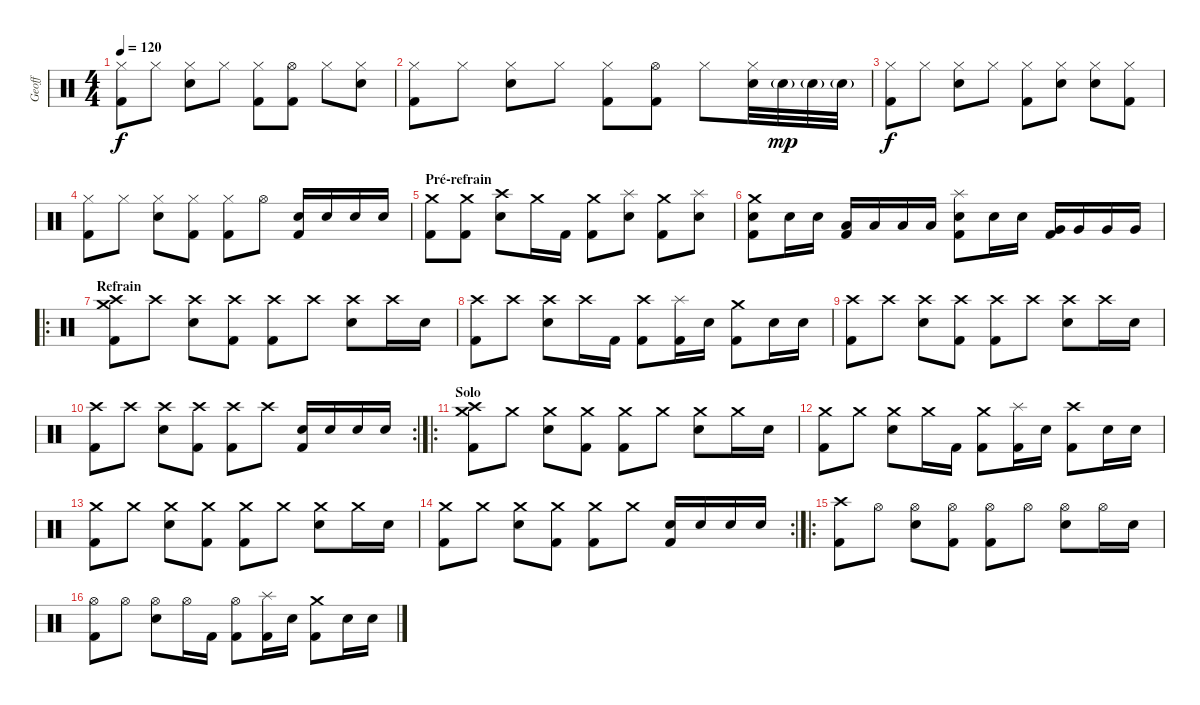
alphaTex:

\track ("Geoff" "Geoff") {instrument percussion}
\staff {score}
\articulation defaults
\ts (4 4)
\tempo 120
\clef neutral
\ks c
("Hi-Hat (closed)" "Kick (hit) 2").8{dy f} "Hi-Hat (closed)".8 ("Hi-Hat (closed)" "Electric Snare (hit)").8 "Hi-Hat (closed)".8 ("Hi-Hat (closed)" "Kick (hit) 2").8 ("Hi-Hat (open)" "Kick (hit) 2").8 "Hi-Hat (closed)".8 ("Hi-Hat (closed)" "Electric Snare (hit)").8 |
("Hi-Hat (closed)" "Kick (hit) 2").8 "Hi-Hat (closed)".8 ("Hi-Hat (closed)" "Electric Snare (hit)").8 "Hi-Hat (closed)".8 ("Hi-Hat (closed)" "Kick (hit) 2").8 ("Hi-Hat (open)" "Kick (hit) 2").8 "Hi-Hat (closed)".8 ("Hi-Hat (closed)" "Electric Snare (hit)").32 "Electric Snare (hit)"{g}.32{dy mp} "Electric Snare (hit)"{g}.32 "Electric Snare (hit)"{g}.32 |
("Hi-Hat (closed)" "Kick (hit) 2").8{dy f} "Hi-Hat (closed)".8 ("Hi-Hat (closed)" "Electric Snare (hit)").8 "Hi-Hat (closed)".8 ("Hi-Hat (closed)" "Kick (hit) 2").8 ("Hi-Hat (closed)" "Electric Snare (hit)").8 ("Hi-Hat (closed)" "Electric Snare (hit)").8 ("Hi-Hat (closed)" "Kick (hit) 2").8 |
("Hi-Hat (closed)" "Kick (hit) 2").8 "Hi-Hat (closed)".8 ("Hi-Hat (closed)" "Electric Snare (hit)").8 ("Hi-Hat (closed)" "Kick (hit) 2").8 ("Hi-Hat (closed)" "Kick (hit) 2").8 "Hi-Hat (open)".8 ("Electric Snare (hit)" "Kick (hit) 2").16 "Electric Snare (hit)".16 "Electric Snare (hit)".16 "Electric Snare (hit)".16 |
\section ("" "Pré-refrain")
("Crash medium (hit)" "Kick (hit) 2").8 ("Crash medium (hit)" "Kick (hit) 2").8 ("Crash high (hit)" "Electric Snare (hit)").8 "Crash medium (hit)".16 "Kick (hit) 2".16 ("Crash medium (hit)" "Kick (hit) 2").8 ("Splash (hit)" "Electric Snare (hit)").8 ("Crash medium (hit)" "Kick (hit) 2").8 ("Splash (hit)" "Electric Snare (hit)").8 |
("Crash medium (hit)" "Electric Snare (hit)" "Kick (hit) 2").8 "Electric Snare (hit)".16 "Electric Snare (hit)".16 ("Low Tom (hit)" "Kick (hit) 2").16 "Low Tom (hit)".16 "Low Tom (hit)".16 "Low Tom (hit)".16 ("Splash (hit)" "Electric Snare (hit)" "Kick (hit) 2").8 "Electric Snare (hit)".16 "Electric Snare (hit)".16 ("Very Low Tom (hit)" "Kick (hit) 2").16 "Very Low Tom (hit)".16 "Very Low Tom (hit)".16 "Very Low Tom (hit)".16 |
\ro
\section ("" "Refrain")
("Crash high (hit)" "Crash medium (hit)" "Kick (hit) 2").8 "Crash high (hit)".8 ("Crash high (hit)" "Electric Snare (hit)").8 ("Crash high (hit)" "Kick (hit) 2").8 ("Crash high (hit)" "Kick (hit) 2").8 "Crash high (hit)".8 ("Crash high (hit)" "Electric Snare (hit)").8 "Crash high (hit)".16 "Electric Snare (hit)".16 |
("Crash high (hit)" "Kick (hit) 2").8 "Crash high (hit)".8 ("Crash high (hit)" "Electric Snare (hit)").8 "Crash high (hit)".16 "Kick (hit) 2".16 ("Crash high (hit)" "Kick (hit) 2").8 ("Splash (hit)" "Kick (hit) 2").16 "Electric Snare (hit)".16 ("Crash medium (hit)" "Kick (hit) 2").8 "Electric Snare (hit)".16 "Electric Snare (hit)".16 |
("Crash high (hit)" "Kick (hit) 2").8 "Crash high (hit)".8 ("Crash high (hit)" "Electric Snare (hit)").8 ("Crash high (hit)" "Kick (hit) 2").8 ("Crash high (hit)" "Kick (hit) 2").8 "Crash high (hit)".8 ("Crash high (hit)" "Electric Snare (hit)").8 "Crash high (hit)".16 "Electric Snare (hit)".16 |
\rc 2
("Crash high (hit)" "Kick (hit) 2").8 "Crash high (hit)".8 ("Crash high (hit)" "Electric Snare (hit)").8 ("Crash high (hit)" "Kick (hit) 2").8 ("Crash high (hit)" "Kick (hit) 2").8 "Crash high (hit)".8 ("Electric Snare (hit)" "Kick (hit) 2").16 "Electric Snare (hit)".16 "Electric Snare (hit)".16 "Electric Snare (hit)".16 |
\ro
\section ("" "Solo")
("Crash medium (hit)" "Crash high (hit)" "Kick (hit) 2").8 "Crash medium (hit)".8 ("Crash medium (hit)" "Electric Snare (hit)").8 ("Crash medium (hit)" "Kick (hit) 2").8 ("Crash medium (hit)" "Kick (hit) 2").8 "Crash medium (hit)".8 ("Crash medium (hit)" "Electric Snare (hit)").8 "Crash medium (hit)".16 "Electric Snare (hit)".16 |
("Crash medium (hit)" "Kick (hit) 2").8 "Crash medium (hit)".8 ("Crash medium (hit)" "Electric Snare (hit)").8 "Crash medium (hit)".16 "Kick (hit) 2".16 ("Crash medium (hit)" "Kick (hit) 2").8 ("Splash (hit)" "Kick (hit) 2").16 "Electric Snare (hit)".16 ("Crash high (hit)" "Kick (hit) 2").8 "Electric Snare (hit)".16 "Electric Snare (hit)".16 |
("Crash medium (hit)" "Kick (hit) 2").8 "Crash medium (hit)".8 ("Crash medium (hit)" "Electric Snare (hit)").8 ("Crash medium (hit)" "Kick (hit) 2").8 ("Crash medium (hit)" "Kick (hit) 2").8 "Crash medium (hit)".8 ("Crash medium (hit)" "Electric Snare (hit)").8 "Crash medium (hit)".16 "Electric Snare (hit)".16 |
\rc 2
("Crash medium (hit)" "Kick (hit) 2").8 "Crash medium (hit)".8 ("Crash medium (hit)" "Electric Snare (hit)").8 ("Crash medium (hit)" "Kick (hit) 2").8 ("Crash medium (hit)" "Kick (hit) 2").8 "Crash medium (hit)".8 ("Electric Snare (hit)" "Kick (hit) 2").16 "Electric Snare (hit)".16 "Electric Snare (hit)".16 "Electric Snare (hit)".16 |
\ro
("Crash high (hit)" "Kick (hit) 2").8 "Hi-Hat (open)".8 ("Hi-Hat (open)" "Electric Snare (hit)").8 ("Hi-Hat (open)" "Kick (hit) 2").8 ("Hi-Hat (open)" "Kick (hit) 2").8 "Hi-Hat (open)".8 ("Hi-Hat (open)" "Electric Snare (hit)").8 "Hi-Hat (open)".16 "Electric Snare (hit)".16 |
("Hi-Hat (open)" "Kick (hit) 2").8 "Hi-Hat (open)".8 ("Hi-Hat (open)" "Electric Snare (hit)").8 "Hi-Hat (open)".16 "Kick (hit) 2".16 ("Hi-Hat (open)" "Kick (hit) 2").8 ("Splash (hit)" "Kick (hit) 2").16 "Electric Snare (hit)".16 ("Crash medium (hit)" "Kick (hit) 2").8 "Electric Snare (hit)".16 "Electric Snare (hit)".16
